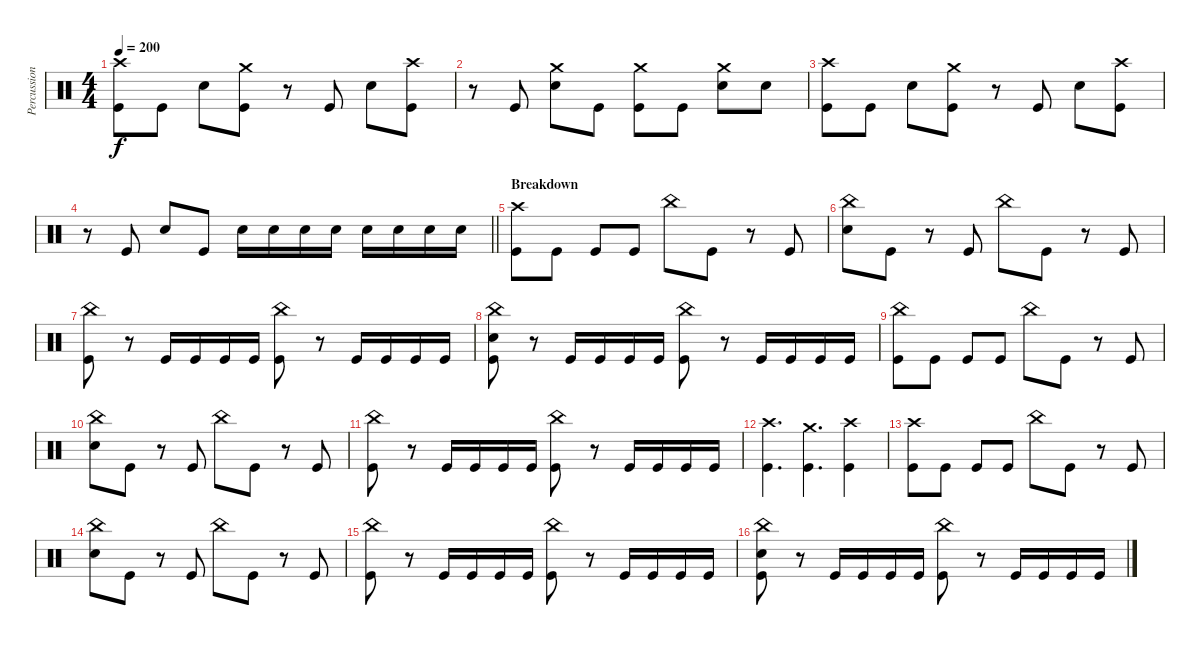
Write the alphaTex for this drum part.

\track ("Percussion" "Percussion") {instrument percussion}
\staff {score}
\articulation defaults
\ts (4 4)
\tempo 200
\clef neutral
\ks c
("Crash high (hit)" "Kick (hit)").8{dy f} "Kick (hit)".8 "Electric Snare (hit)".8 ("Crash medium (hit)" "Kick (hit)").8 r.8 "Kick (hit)".8 "Electric Snare (hit)".8 ("Crash high (hit)" "Kick (hit)").8 |
r.8 "Kick (hit)".8 ("Crash medium (hit)" "Electric Snare (hit)").8 "Kick (hit)".8 ("Crash medium (hit)" "Kick (hit)").8 "Kick (hit)".8 ("Crash medium (hit)" "Electric Snare (hit)").8 "Electric Snare (hit)".8 |
("Crash high (hit)" "Kick (hit)").8 "Kick (hit)".8 "Electric Snare (hit)".8 ("Crash medium (hit)" "Kick (hit)").8 r.8 "Kick (hit)".8 "Electric Snare (hit)".8 ("Crash high (hit)" "Kick (hit)").8 |
\barLineRight lightlight
r.8 "Kick (hit)".8 "Electric Snare (hit)".8 "Kick (hit)".8 "Electric Snare (hit)".16 "Electric Snare (hit)".16 "Electric Snare (hit)".16 "Electric Snare (hit)".16 "Electric Snare (hit)".16 "Electric Snare (hit)".16 "Electric Snare (hit)".16 "Electric Snare (hit)".16 |
\section ("" "Breakdown")
("Crash high (hit)" "Kick (hit)").8 "Kick (hit)".8 "Kick (hit)".8 "Kick (hit)".8 "China (hit)".8 "Kick (hit)".8 r.8 "Kick (hit)".8 |
("China (hit)" "Electric Snare (hit)").8 "Kick (hit)".8 r.8 "Kick (hit)".8 "China (hit)".8 "Kick (hit)".8 r.8 "Kick (hit)".8 |
("China (hit)" "Kick (hit)").8 r.8 "Kick (hit)".16 "Kick (hit)".16 "Kick (hit)".16 "Kick (hit)".16 ("China (hit)" "Kick (hit)").8 r.8 "Kick (hit)".16 "Kick (hit)".16 "Kick (hit)".16 "Kick (hit)".16 |
("China (hit)" "Electric Snare (hit)" "Kick (hit)").8 r.8 "Kick (hit)".16 "Kick (hit)".16 "Kick (hit)".16 "Kick (hit)".16 ("China (hit)" "Kick (hit)").8 r.8 "Kick (hit)".16 "Kick (hit)".16 "Kick (hit)".16 "Kick (hit)".16 |
("China (hit)" "Kick (hit)").8 "Kick (hit)".8 "Kick (hit)".8 "Kick (hit)".8 "China (hit)".8 "Kick (hit)".8 r.8 "Kick (hit)".8 |
("China (hit)" "Electric Snare (hit)").8 "Kick (hit)".8 r.8 "Kick (hit)".8 "China (hit)".8 "Kick (hit)".8 r.8 "Kick (hit)".8 |
("China (hit)" "Kick (hit)").8 r.8 "Kick (hit)".16 "Kick (hit)".16 "Kick (hit)".16 "Kick (hit)".16 ("China (hit)" "Kick (hit)").8 r.8 "Kick (hit)".16 "Kick (hit)".16 "Kick (hit)".16 "Kick (hit)".16 |
("Crash high (hit)" "Kick (hit)").4{d} ("Crash medium (hit)" "Kick (hit)").4{d} ("Crash high (hit)" "Kick (hit)").4 |
("Crash high (hit)" "Kick (hit)").8 "Kick (hit)".8 "Kick (hit)".8 "Kick (hit)".8 "China (hit)".8 "Kick (hit)".8 r.8 "Kick (hit)".8 |
("China (hit)" "Electric Snare (hit)").8 "Kick (hit)".8 r.8 "Kick (hit)".8 "China (hit)".8 "Kick (hit)".8 r.8 "Kick (hit)".8 |
("China (hit)" "Kick (hit)").8 r.8 "Kick (hit)".16 "Kick (hit)".16 "Kick (hit)".16 "Kick (hit)".16 ("China (hit)" "Kick (hit)").8 r.8 "Kick (hit)".16 "Kick (hit)".16 "Kick (hit)".16 "Kick (hit)".16 |
("China (hit)" "Electric Snare (hit)" "Kick (hit)").8 r.8 "Kick (hit)".16 "Kick (hit)".16 "Kick (hit)".16 "Kick (hit)".16 ("China (hit)" "Kick (hit)").8 r.8 "Kick (hit)".16 "Kick (hit)".16 "Kick (hit)".16 "Kick (hit)".16
